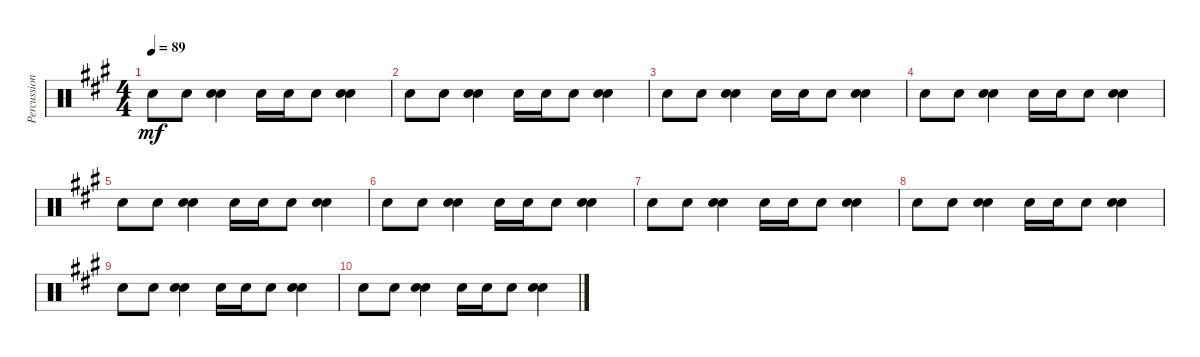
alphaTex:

\track ("Percussions" "Percussion") {instrument percussion}
\staff {score}
\articulation defaults
\ts (4 4)
\tempo 89
\clef neutral
\ks a "Electric Snare (hit)".8{dy mf} "Electric Snare (hit)".8
("Snare (hit) 2" "Electric Snare (hit)").4 "Electric Snare (hit)".16 "Electric Snare (hit)".16 "Electric Snare (hit)".8 ("Snare (hit) 2" "Electric Snare (hit)").4 |
"Electric Snare (hit)".8 "Electric Snare (hit)".8 ("Snare (hit) 2" "Electric Snare (hit)").4 "Electric Snare (hit)".16 "Electric Snare (hit)".16 "Electric Snare (hit)".8 ("Snare (hit) 2" "Electric Snare (hit)").4 |
"Electric Snare (hit)".8 "Electric Snare (hit)".8 ("Snare (hit) 2" "Electric Snare (hit)").4 "Electric Snare (hit)".16 "Electric Snare (hit)".16 "Electric Snare (hit)".8 ("Snare (hit) 2" "Electric Snare (hit)").4 |
"Electric Snare (hit)".8 "Electric Snare (hit)".8 ("Snare (hit) 2" "Electric Snare (hit)").4 "Electric Snare (hit)".16 "Electric Snare (hit)".16 "Electric Snare (hit)".8 ("Snare (hit) 2" "Electric Snare (hit)").4 |
"Electric Snare (hit)".8 "Electric Snare (hit)".8 ("Snare (hit) 2" "Electric Snare (hit)").4 "Electric Snare (hit)".16 "Electric Snare (hit)".16 "Electric Snare (hit)".8 ("Snare (hit) 2" "Electric Snare (hit)").4 |
"Electric Snare (hit)".8 "Electric Snare (hit)".8 ("Snare (hit) 2" "Electric Snare (hit)").4 "Electric Snare (hit)".16 "Electric Snare (hit)".16 "Electric Snare (hit)".8 ("Snare (hit) 2" "Electric Snare (hit)").4 |
"Electric Snare (hit)".8 "Electric Snare (hit)".8 ("Snare (hit) 2" "Electric Snare (hit)").4 "Electric Snare (hit)".16 "Electric Snare (hit)".16 "Electric Snare (hit)".8 ("Snare (hit) 2" "Electric Snare (hit)").4 |
"Electric Snare (hit)".8 "Electric Snare (hit)".8 ("Snare (hit) 2" "Electric Snare (hit)").4 "Electric Snare (hit)".16 "Electric Snare (hit)".16 "Electric Snare (hit)".8 ("Snare (hit) 2" "Electric Snare (hit)").4 |
"Electric Snare (hit)".8 "Electric Snare (hit)".8 ("Snare (hit) 2" "Electric Snare (hit)").4 "Electric Snare (hit)".16 "Electric Snare (hit)".16 "Electric Snare (hit)".8 ("Snare (hit) 2" "Electric Snare (hit)").4 |
"Electric Snare (hit)".8 "Electric Snare (hit)".8 ("Snare (hit) 2" "Electric Snare (hit)").4 "Electric Snare (hit)".16 "Electric Snare (hit)".16 "Electric Snare (hit)".8 ("Snare (hit) 2" "Electric Snare (hit)").4
